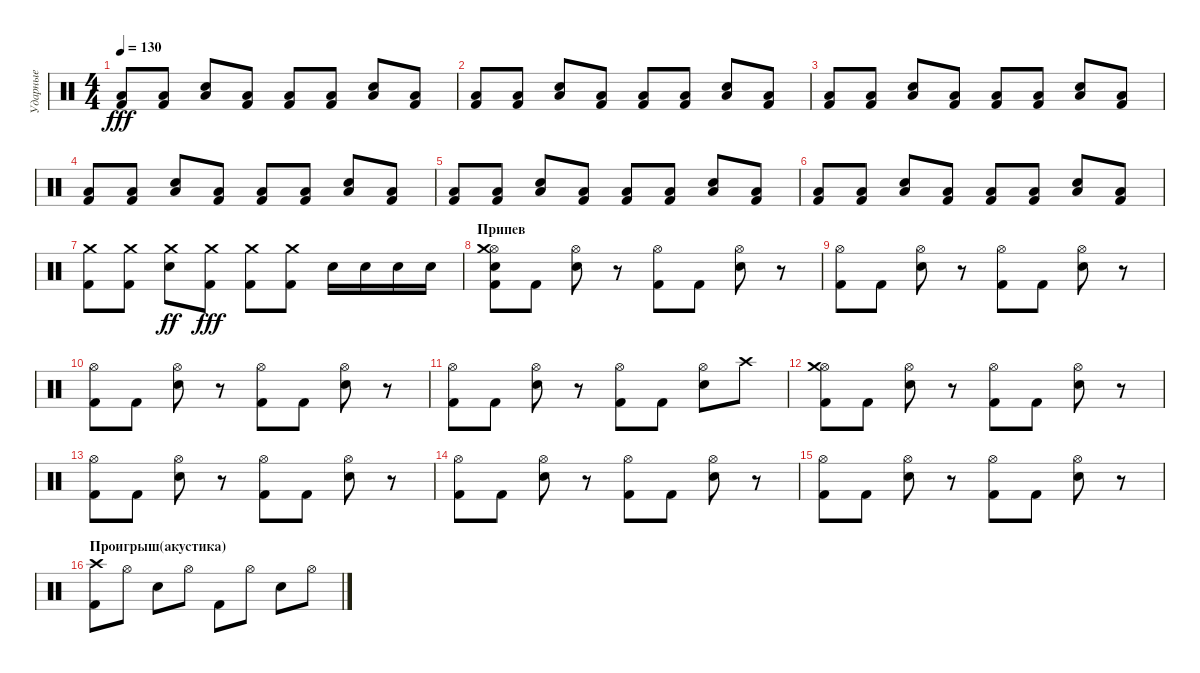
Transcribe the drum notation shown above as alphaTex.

\track ("Ударные" "Ударные") {instrument percussion}
\staff {score}
\articulation defaults
\ts (4 4)
\tempo 130
\clef neutral
\ks c
("Kick (hit) 2" "Low Tom (hit)").8{dy fff} ("Kick (hit) 2" "Low Tom (hit)").8 ("Snare (hit) 2" "Low Tom (hit)").8 ("Kick (hit) 2" "Low Tom (hit)").8 ("Kick (hit) 2" "Low Tom (hit)").8 ("Kick (hit) 2" "Low Tom (hit)").8 ("Snare (hit) 2" "Low Tom (hit)").8 ("Kick (hit) 2" "Low Tom (hit)").8 |
("Kick (hit) 2" "Low Tom (hit)").8 ("Kick (hit) 2" "Low Tom (hit)").8 ("Snare (hit) 2" "Low Tom (hit)").8 ("Kick (hit) 2" "Low Tom (hit)").8 ("Kick (hit) 2" "Low Tom (hit)").8 ("Kick (hit) 2" "Low Tom (hit)").8 ("Snare (hit) 2" "Low Tom (hit)").8 ("Kick (hit) 2" "Low Tom (hit)").8 |
("Kick (hit) 2" "Low Tom (hit)").8 ("Kick (hit) 2" "Low Tom (hit)").8 ("Snare (hit) 2" "Low Tom (hit)").8 ("Kick (hit) 2" "Low Tom (hit)").8 ("Kick (hit) 2" "Low Tom (hit)").8 ("Kick (hit) 2" "Low Tom (hit)").8 ("Snare (hit) 2" "Low Tom (hit)").8 ("Kick (hit) 2" "Low Tom (hit)").8 |
("Kick (hit) 2" "Low Tom (hit)").8 ("Kick (hit) 2" "Low Tom (hit)").8 ("Snare (hit) 2" "Low Tom (hit)").8 ("Kick (hit) 2" "Low Tom (hit)").8 ("Kick (hit) 2" "Low Tom (hit)").8 ("Kick (hit) 2" "Low Tom (hit)").8 ("Snare (hit) 2" "Low Tom (hit)").8 ("Kick (hit) 2" "Low Tom (hit)").8 |
("Kick (hit) 2" "Low Tom (hit)").8 ("Kick (hit) 2" "Low Tom (hit)").8 ("Snare (hit) 2" "Low Tom (hit)").8 ("Kick (hit) 2" "Low Tom (hit)").8 ("Kick (hit) 2" "Low Tom (hit)").8 ("Kick (hit) 2" "Low Tom (hit)").8 ("Snare (hit) 2" "Low Tom (hit)").8 ("Kick (hit) 2" "Low Tom (hit)").8 |
("Kick (hit) 2" "Low Tom (hit)").8 ("Kick (hit) 2" "Low Tom (hit)").8 ("Snare (hit) 2" "Low Tom (hit)").8 ("Kick (hit) 2" "Low Tom (hit)").8 ("Kick (hit) 2" "Low Tom (hit)").8 ("Kick (hit) 2" "Low Tom (hit)").8 ("Snare (hit) 2" "Low Tom (hit)").8 ("Kick (hit) 2" "Low Tom (hit)").8 |
("Kick (hit) 2" "Crash medium (hit)").8 ("Kick (hit) 2" "Crash medium (hit)").8 ("Snare (hit) 2" "Crash medium (hit)").8{dy ff} ("Kick (hit) 2" "Crash medium (hit)").8{dy fff} ("Kick (hit) 2" "Crash medium (hit)").8 ("Kick (hit) 2" "Crash medium (hit)").8 "Snare (hit) 2".16 "Snare (hit) 2".16 "Snare (hit) 2".16 "Snare (hit) 2".16 |
\section ("" "Припев")
("Kick (hit) 2" "Hi-Hat (open)" "Crash medium (hit)" "Snare (hit) 2").8 "Kick (hit) 2".8 ("Snare (hit) 2" "Hi-Hat (open)").8 r.8 ("Kick (hit) 2" "Hi-Hat (open)").8 "Kick (hit) 2".8 ("Snare (hit) 2" "Hi-Hat (open)").8 r.8 |
("Kick (hit) 2" "Hi-Hat (open)").8 "Kick (hit) 2".8 ("Snare (hit) 2" "Hi-Hat (open)").8 r.8 ("Kick (hit) 2" "Hi-Hat (open)").8 "Kick (hit) 2".8 ("Snare (hit) 2" "Hi-Hat (open)").8 r.8 |
("Kick (hit) 2" "Hi-Hat (open)").8 "Kick (hit) 2".8 ("Snare (hit) 2" "Hi-Hat (open)").8 r.8 ("Kick (hit) 2" "Hi-Hat (open)").8 "Kick (hit) 2".8 ("Snare (hit) 2" "Hi-Hat (open)").8 r.8 |
("Kick (hit) 2" "Hi-Hat (open)").8 "Kick (hit) 2".8 ("Snare (hit) 2" "Hi-Hat (open)").8 r.8 ("Kick (hit) 2" "Hi-Hat (open)").8 "Kick (hit) 2".8 ("Snare (hit) 2" "Hi-Hat (open)").8 "Crash high (hit)".8 |
("Kick (hit) 2" "Hi-Hat (open)" "Crash medium (hit)").8 "Kick (hit) 2".8 ("Snare (hit) 2" "Hi-Hat (open)").8 r.8 ("Kick (hit) 2" "Hi-Hat (open)").8 "Kick (hit) 2".8 ("Snare (hit) 2" "Hi-Hat (open)").8 r.8 |
("Kick (hit) 2" "Hi-Hat (open)").8 "Kick (hit) 2".8 ("Snare (hit) 2" "Hi-Hat (open)").8 r.8 ("Kick (hit) 2" "Hi-Hat (open)").8 "Kick (hit) 2".8 ("Snare (hit) 2" "Hi-Hat (open)").8 r.8 |
("Kick (hit) 2" "Hi-Hat (open)").8 "Kick (hit) 2".8 ("Snare (hit) 2" "Hi-Hat (open)").8 r.8 ("Kick (hit) 2" "Hi-Hat (open)").8 "Kick (hit) 2".8 ("Snare (hit) 2" "Hi-Hat (open)").8 r.8 |
("Kick (hit) 2" "Hi-Hat (open)").8 "Kick (hit) 2".8 ("Snare (hit) 2" "Hi-Hat (open)").8 r.8 ("Kick (hit) 2" "Hi-Hat (open)").8 "Kick (hit) 2".8 ("Snare (hit) 2" "Hi-Hat (open)").8 r.8 |
\section ("" "Проигрыш(акустика)")
("Kick (hit) 2" "Crash high (hit)").8 "Hi-Hat (open)".8 "Snare (hit) 2".8 "Hi-Hat (open)".8 "Kick (hit) 2".8 "Hi-Hat (open)".8 "Snare (hit) 2".8 "Hi-Hat (open)".8
